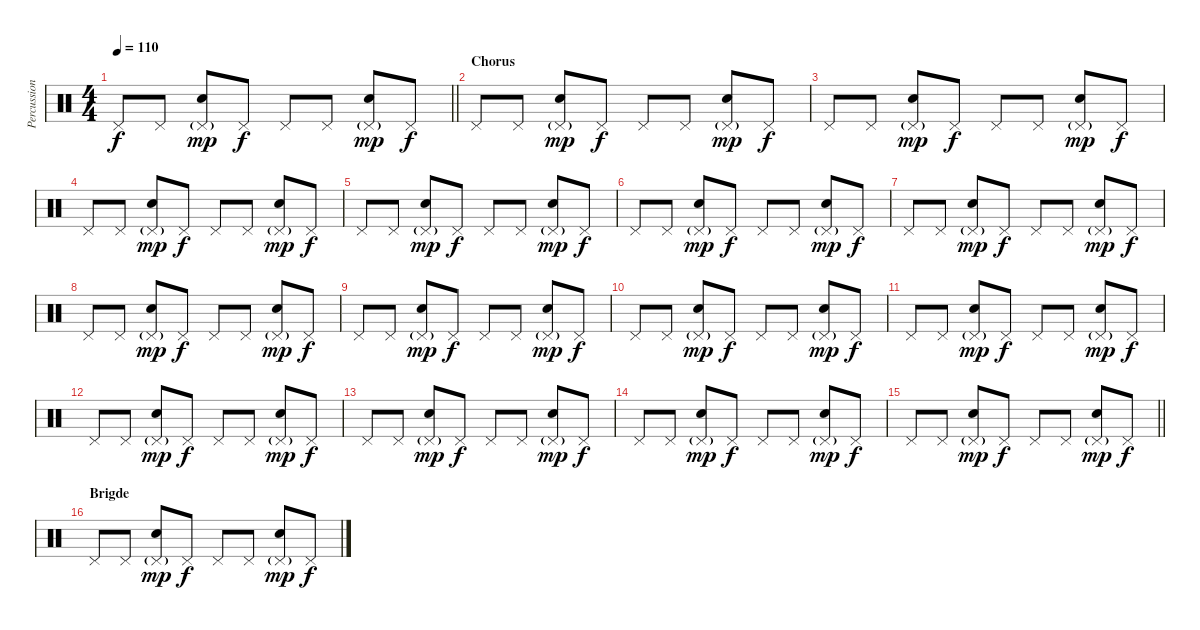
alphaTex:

\track ("Percussion" "Percussion") {instrument percussion}
\staff {score}
\articulation defaults
\ts (4 4)
\tempo 110
\clef neutral
\barLineRight lightlight
\ks c "Pedal Hi-Hat (hit)".8{dy f} "Pedal Hi-Hat (hit)".8
("Pedal Hi-Hat (hit)"{g} "Electric Snare (hit)").8{dy mp} "Pedal Hi-Hat (hit)".8{dy f} "Pedal Hi-Hat (hit)".8 "Pedal Hi-Hat (hit)".8 ("Pedal Hi-Hat (hit)"{g} "Electric Snare (hit)").8{dy mp} "Pedal Hi-Hat (hit)".8{dy f} |
\section ("" "Chorus")
"Pedal Hi-Hat (hit)".8 "Pedal Hi-Hat (hit)".8 ("Pedal Hi-Hat (hit)"{g} "Electric Snare (hit)").8{dy mp} "Pedal Hi-Hat (hit)".8{dy f} "Pedal Hi-Hat (hit)".8 "Pedal Hi-Hat (hit)".8 ("Pedal Hi-Hat (hit)"{g} "Electric Snare (hit)").8{dy mp} "Pedal Hi-Hat (hit)".8{dy f} |
"Pedal Hi-Hat (hit)".8 "Pedal Hi-Hat (hit)".8 ("Pedal Hi-Hat (hit)"{g} "Electric Snare (hit)").8{dy mp} "Pedal Hi-Hat (hit)".8{dy f} "Pedal Hi-Hat (hit)".8 "Pedal Hi-Hat (hit)".8 ("Pedal Hi-Hat (hit)"{g} "Electric Snare (hit)").8{dy mp} "Pedal Hi-Hat (hit)".8{dy f} |
"Pedal Hi-Hat (hit)".8 "Pedal Hi-Hat (hit)".8 ("Pedal Hi-Hat (hit)"{g} "Electric Snare (hit)").8{dy mp} "Pedal Hi-Hat (hit)".8{dy f} "Pedal Hi-Hat (hit)".8 "Pedal Hi-Hat (hit)".8 ("Pedal Hi-Hat (hit)"{g} "Electric Snare (hit)").8{dy mp} "Pedal Hi-Hat (hit)".8{dy f} |
"Pedal Hi-Hat (hit)".8 "Pedal Hi-Hat (hit)".8 ("Pedal Hi-Hat (hit)"{g} "Electric Snare (hit)").8{dy mp} "Pedal Hi-Hat (hit)".8{dy f} "Pedal Hi-Hat (hit)".8 "Pedal Hi-Hat (hit)".8 ("Pedal Hi-Hat (hit)"{g} "Electric Snare (hit)").8{dy mp} "Pedal Hi-Hat (hit)".8{dy f} |
"Pedal Hi-Hat (hit)".8 "Pedal Hi-Hat (hit)".8 ("Pedal Hi-Hat (hit)"{g} "Electric Snare (hit)").8{dy mp} "Pedal Hi-Hat (hit)".8{dy f} "Pedal Hi-Hat (hit)".8 "Pedal Hi-Hat (hit)".8 ("Pedal Hi-Hat (hit)"{g} "Electric Snare (hit)").8{dy mp} "Pedal Hi-Hat (hit)".8{dy f} |
"Pedal Hi-Hat (hit)".8 "Pedal Hi-Hat (hit)".8 ("Pedal Hi-Hat (hit)"{g} "Electric Snare (hit)").8{dy mp} "Pedal Hi-Hat (hit)".8{dy f} "Pedal Hi-Hat (hit)".8 "Pedal Hi-Hat (hit)".8 ("Pedal Hi-Hat (hit)"{g} "Electric Snare (hit)").8{dy mp} "Pedal Hi-Hat (hit)".8{dy f} |
"Pedal Hi-Hat (hit)".8 "Pedal Hi-Hat (hit)".8 ("Pedal Hi-Hat (hit)"{g} "Electric Snare (hit)").8{dy mp} "Pedal Hi-Hat (hit)".8{dy f} "Pedal Hi-Hat (hit)".8 "Pedal Hi-Hat (hit)".8 ("Pedal Hi-Hat (hit)"{g} "Electric Snare (hit)").8{dy mp} "Pedal Hi-Hat (hit)".8{dy f} |
"Pedal Hi-Hat (hit)".8 "Pedal Hi-Hat (hit)".8 ("Pedal Hi-Hat (hit)"{g} "Electric Snare (hit)").8{dy mp} "Pedal Hi-Hat (hit)".8{dy f} "Pedal Hi-Hat (hit)".8 "Pedal Hi-Hat (hit)".8 ("Pedal Hi-Hat (hit)"{g} "Electric Snare (hit)").8{dy mp} "Pedal Hi-Hat (hit)".8{dy f} |
"Pedal Hi-Hat (hit)".8 "Pedal Hi-Hat (hit)".8 ("Pedal Hi-Hat (hit)"{g} "Electric Snare (hit)").8{dy mp} "Pedal Hi-Hat (hit)".8{dy f} "Pedal Hi-Hat (hit)".8 "Pedal Hi-Hat (hit)".8 ("Pedal Hi-Hat (hit)"{g} "Electric Snare (hit)").8{dy mp} "Pedal Hi-Hat (hit)".8{dy f} |
"Pedal Hi-Hat (hit)".8 "Pedal Hi-Hat (hit)".8 ("Pedal Hi-Hat (hit)"{g} "Electric Snare (hit)").8{dy mp} "Pedal Hi-Hat (hit)".8{dy f} "Pedal Hi-Hat (hit)".8 "Pedal Hi-Hat (hit)".8 ("Pedal Hi-Hat (hit)"{g} "Electric Snare (hit)").8{dy mp} "Pedal Hi-Hat (hit)".8{dy f} |
"Pedal Hi-Hat (hit)".8 "Pedal Hi-Hat (hit)".8 ("Pedal Hi-Hat (hit)"{g} "Electric Snare (hit)").8{dy mp} "Pedal Hi-Hat (hit)".8{dy f} "Pedal Hi-Hat (hit)".8 "Pedal Hi-Hat (hit)".8 ("Pedal Hi-Hat (hit)"{g} "Electric Snare (hit)").8{dy mp} "Pedal Hi-Hat (hit)".8{dy f} |
"Pedal Hi-Hat (hit)".8 "Pedal Hi-Hat (hit)".8 ("Pedal Hi-Hat (hit)"{g} "Electric Snare (hit)").8{dy mp} "Pedal Hi-Hat (hit)".8{dy f} "Pedal Hi-Hat (hit)".8 "Pedal Hi-Hat (hit)".8 ("Pedal Hi-Hat (hit)"{g} "Electric Snare (hit)").8{dy mp} "Pedal Hi-Hat (hit)".8{dy f} |
"Pedal Hi-Hat (hit)".8 "Pedal Hi-Hat (hit)".8 ("Pedal Hi-Hat (hit)"{g} "Electric Snare (hit)").8{dy mp} "Pedal Hi-Hat (hit)".8{dy f} "Pedal Hi-Hat (hit)".8 "Pedal Hi-Hat (hit)".8 ("Pedal Hi-Hat (hit)"{g} "Electric Snare (hit)").8{dy mp} "Pedal Hi-Hat (hit)".8{dy f} |
\barLineRight lightlight "Pedal Hi-Hat (hit)".8 "Pedal Hi-Hat (hit)".8
("Pedal Hi-Hat (hit)"{g} "Electric Snare (hit)").8{dy mp} "Pedal Hi-Hat (hit)".8{dy f} "Pedal Hi-Hat (hit)".8 "Pedal Hi-Hat (hit)".8 ("Pedal Hi-Hat (hit)"{g} "Electric Snare (hit)").8{dy mp} "Pedal Hi-Hat (hit)".8{dy f} |
\section ("" "Brigde")
"Pedal Hi-Hat (hit)".8 "Pedal Hi-Hat (hit)".8 ("Pedal Hi-Hat (hit)"{g} "Electric Snare (hit)").8{dy mp} "Pedal Hi-Hat (hit)".8{dy f} "Pedal Hi-Hat (hit)".8 "Pedal Hi-Hat (hit)".8 ("Pedal Hi-Hat (hit)"{g} "Electric Snare (hit)").8{dy mp} "Pedal Hi-Hat (hit)".8{dy f}
